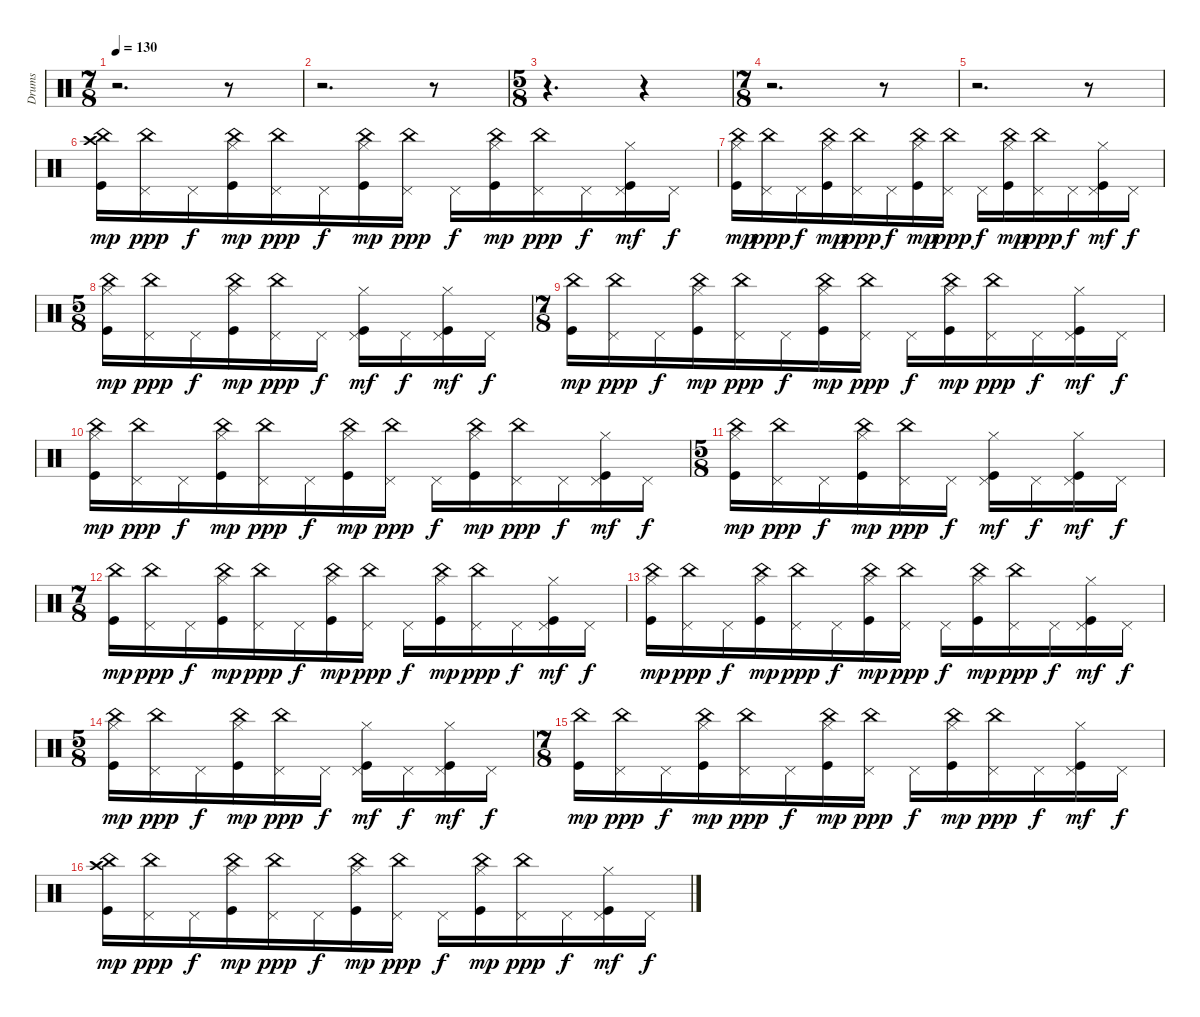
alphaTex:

\track ("Drums" "Drums") {instrument percussion}
\staff {score}
\articulation defaults
\ts (7 8)
\tempo 130
\clef neutral
\ks c
r.2{d dy f} r.8 |
r.2{d} r.8 |
\ts (5 8)
r.4{d} r.4 |
\ts (7 8)
r.2{d} r.8 |
r.2{d} r.8 |
("Crash high (hit)" "China (hit)" "Kick (hit)").16{dy mp} ("China (hit)" "Pedal Hi-Hat (hit)").16{dy ppp} "Pedal Hi-Hat (hit)".16{dy f} ("Hi-Hat (closed)" "China (hit)" "Kick (hit)").16{dy mp} ("China (hit)" "Pedal Hi-Hat (hit)").16{dy ppp} "Pedal Hi-Hat (hit)".16{dy f} ("Hi-Hat (closed)" "China (hit)" "Kick (hit)").16{dy mp} ("China (hit)" "Pedal Hi-Hat (hit)").16{dy ppp} "Pedal Hi-Hat (hit)".16{dy f} ("Hi-Hat (closed)" "China (hit)" "Kick (hit)").16{dy mp} ("China (hit)" "Pedal Hi-Hat (hit)").16{dy ppp} "Pedal Hi-Hat (hit)".16{dy f} ("Hi-Hat (closed)" "Pedal Hi-Hat (hit)" "Kick (hit)").16{dy mf} "Pedal Hi-Hat (hit)".16{dy f} |
("Hi-Hat (closed)" "China (hit)" "Kick (hit)").16{dy mp} ("China (hit)" "Pedal Hi-Hat (hit)").16{dy ppp} "Pedal Hi-Hat (hit)".16{dy f} ("Hi-Hat (closed)" "China (hit)" "Kick (hit)").16{dy mp} ("China (hit)" "Pedal Hi-Hat (hit)").16{dy ppp} "Pedal Hi-Hat (hit)".16{dy f} ("Hi-Hat (closed)" "China (hit)" "Kick (hit)").16{dy mp} ("China (hit)" "Pedal Hi-Hat (hit)").16{dy ppp} "Pedal Hi-Hat (hit)".16{dy f} ("Hi-Hat (closed)" "China (hit)" "Kick (hit)").16{dy mp} ("China (hit)" "Pedal Hi-Hat (hit)").16{dy ppp} "Pedal Hi-Hat (hit)".16{dy f} ("Hi-Hat (closed)" "Pedal Hi-Hat (hit)" "Kick (hit)").16{dy mf} "Pedal Hi-Hat (hit)".16{dy f} |
\ts (5 8)
("Hi-Hat (closed)" "China (hit)" "Kick (hit)").16{dy mp} ("China (hit)" "Pedal Hi-Hat (hit)").16{dy ppp} "Pedal Hi-Hat (hit)".16{dy f} ("Hi-Hat (closed)" "China (hit)" "Kick (hit)").16{dy mp} ("China (hit)" "Pedal Hi-Hat (hit)").16{dy ppp} "Pedal Hi-Hat (hit)".16{dy f} ("Hi-Hat (closed)" "Pedal Hi-Hat (hit)" "Kick (hit)").16{dy mf} "Pedal Hi-Hat (hit)".16{dy f} ("Hi-Hat (closed)" "Pedal Hi-Hat (hit)" "Kick (hit)").16{dy mf} "Pedal Hi-Hat (hit)".16{dy f} |
\ts (7 8)
("China (hit)" "Kick (hit)").16{dy mp} ("China (hit)" "Pedal Hi-Hat (hit)").16{dy ppp} "Pedal Hi-Hat (hit)".16{dy f} ("Hi-Hat (closed)" "China (hit)" "Kick (hit)").16{dy mp} ("China (hit)" "Pedal Hi-Hat (hit)").16{dy ppp} "Pedal Hi-Hat (hit)".16{dy f} ("Hi-Hat (closed)" "China (hit)" "Kick (hit)").16{dy mp} ("China (hit)" "Pedal Hi-Hat (hit)").16{dy ppp} "Pedal Hi-Hat (hit)".16{dy f} ("Hi-Hat (closed)" "China (hit)" "Kick (hit)").16{dy mp} ("China (hit)" "Pedal Hi-Hat (hit)").16{dy ppp} "Pedal Hi-Hat (hit)".16{dy f} ("Hi-Hat (closed)" "Pedal Hi-Hat (hit)" "Kick (hit)").16{dy mf} "Pedal Hi-Hat (hit)".16{dy f} |
("Hi-Hat (closed)" "China (hit)" "Kick (hit)").16{dy mp} ("China (hit)" "Pedal Hi-Hat (hit)").16{dy ppp} "Pedal Hi-Hat (hit)".16{dy f} ("Hi-Hat (closed)" "China (hit)" "Kick (hit)").16{dy mp} ("China (hit)" "Pedal Hi-Hat (hit)").16{dy ppp} "Pedal Hi-Hat (hit)".16{dy f} ("Hi-Hat (closed)" "China (hit)" "Kick (hit)").16{dy mp} ("China (hit)" "Pedal Hi-Hat (hit)").16{dy ppp} "Pedal Hi-Hat (hit)".16{dy f} ("Hi-Hat (closed)" "China (hit)" "Kick (hit)").16{dy mp} ("China (hit)" "Pedal Hi-Hat (hit)").16{dy ppp} "Pedal Hi-Hat (hit)".16{dy f} ("Hi-Hat (closed)" "Pedal Hi-Hat (hit)" "Kick (hit)").16{dy mf} "Pedal Hi-Hat (hit)".16{dy f} |
\ts (5 8)
("Hi-Hat (closed)" "China (hit)" "Kick (hit)").16{dy mp} ("China (hit)" "Pedal Hi-Hat (hit)").16{dy ppp} "Pedal Hi-Hat (hit)".16{dy f} ("Hi-Hat (closed)" "China (hit)" "Kick (hit)").16{dy mp} ("China (hit)" "Pedal Hi-Hat (hit)").16{dy ppp} "Pedal Hi-Hat (hit)".16{dy f} ("Hi-Hat (closed)" "Pedal Hi-Hat (hit)" "Kick (hit)").16{dy mf} "Pedal Hi-Hat (hit)".16{dy f} ("Hi-Hat (closed)" "Pedal Hi-Hat (hit)" "Kick (hit)").16{dy mf} "Pedal Hi-Hat (hit)".16{dy f} |
\ts (7 8)
("China (hit)" "Kick (hit)").16{dy mp} ("China (hit)" "Pedal Hi-Hat (hit)").16{dy ppp} "Pedal Hi-Hat (hit)".16{dy f} ("Hi-Hat (closed)" "China (hit)" "Kick (hit)").16{dy mp} ("China (hit)" "Pedal Hi-Hat (hit)").16{dy ppp} "Pedal Hi-Hat (hit)".16{dy f} ("Hi-Hat (closed)" "China (hit)" "Kick (hit)").16{dy mp} ("China (hit)" "Pedal Hi-Hat (hit)").16{dy ppp} "Pedal Hi-Hat (hit)".16{dy f} ("Hi-Hat (closed)" "China (hit)" "Kick (hit)").16{dy mp} ("China (hit)" "Pedal Hi-Hat (hit)").16{dy ppp} "Pedal Hi-Hat (hit)".16{dy f} ("Hi-Hat (closed)" "Pedal Hi-Hat (hit)" "Kick (hit)").16{dy mf} "Pedal Hi-Hat (hit)".16{dy f} |
("Hi-Hat (closed)" "China (hit)" "Kick (hit)").16{dy mp} ("China (hit)" "Pedal Hi-Hat (hit)").16{dy ppp} "Pedal Hi-Hat (hit)".16{dy f} ("Hi-Hat (closed)" "China (hit)" "Kick (hit)").16{dy mp} ("China (hit)" "Pedal Hi-Hat (hit)").16{dy ppp} "Pedal Hi-Hat (hit)".16{dy f} ("Hi-Hat (closed)" "China (hit)" "Kick (hit)").16{dy mp} ("China (hit)" "Pedal Hi-Hat (hit)").16{dy ppp} "Pedal Hi-Hat (hit)".16{dy f} ("Hi-Hat (closed)" "China (hit)" "Kick (hit)").16{dy mp} ("China (hit)" "Pedal Hi-Hat (hit)").16{dy ppp} "Pedal Hi-Hat (hit)".16{dy f} ("Hi-Hat (closed)" "Pedal Hi-Hat (hit)" "Kick (hit)").16{dy mf} "Pedal Hi-Hat (hit)".16{dy f} |
\ts (5 8)
("Hi-Hat (closed)" "China (hit)" "Kick (hit)").16{dy mp} ("China (hit)" "Pedal Hi-Hat (hit)").16{dy ppp} "Pedal Hi-Hat (hit)".16{dy f} ("Hi-Hat (closed)" "China (hit)" "Kick (hit)").16{dy mp} ("China (hit)" "Pedal Hi-Hat (hit)").16{dy ppp} "Pedal Hi-Hat (hit)".16{dy f} ("Hi-Hat (closed)" "Pedal Hi-Hat (hit)" "Kick (hit)").16{dy mf} "Pedal Hi-Hat (hit)".16{dy f} ("Hi-Hat (closed)" "Pedal Hi-Hat (hit)" "Kick (hit)").16{dy mf} "Pedal Hi-Hat (hit)".16{dy f} |
\ts (7 8)
("China (hit)" "Kick (hit)").16{dy mp} ("China (hit)" "Pedal Hi-Hat (hit)").16{dy ppp} "Pedal Hi-Hat (hit)".16{dy f} ("Hi-Hat (closed)" "China (hit)" "Kick (hit)").16{dy mp} ("China (hit)" "Pedal Hi-Hat (hit)").16{dy ppp} "Pedal Hi-Hat (hit)".16{dy f} ("Hi-Hat (closed)" "China (hit)" "Kick (hit)").16{dy mp} ("China (hit)" "Pedal Hi-Hat (hit)").16{dy ppp} "Pedal Hi-Hat (hit)".16{dy f} ("Hi-Hat (closed)" "China (hit)" "Kick (hit)").16{dy mp} ("China (hit)" "Pedal Hi-Hat (hit)").16{dy ppp} "Pedal Hi-Hat (hit)".16{dy f} ("Hi-Hat (closed)" "Pedal Hi-Hat (hit)" "Kick (hit)").16{dy mf} "Pedal Hi-Hat (hit)".16{dy f} |
("Crash high (hit)" "China (hit)" "Kick (hit)").16{dy mp} ("China (hit)" "Pedal Hi-Hat (hit)").16{dy ppp} "Pedal Hi-Hat (hit)".16{dy f} ("Hi-Hat (closed)" "China (hit)" "Kick (hit)").16{dy mp} ("China (hit)" "Pedal Hi-Hat (hit)").16{dy ppp} "Pedal Hi-Hat (hit)".16{dy f} ("Hi-Hat (closed)" "China (hit)" "Kick (hit)").16{dy mp} ("China (hit)" "Pedal Hi-Hat (hit)").16{dy ppp} "Pedal Hi-Hat (hit)".16{dy f} ("Hi-Hat (closed)" "China (hit)" "Kick (hit)").16{dy mp} ("China (hit)" "Pedal Hi-Hat (hit)").16{dy ppp} "Pedal Hi-Hat (hit)".16{dy f} ("Hi-Hat (closed)" "Pedal Hi-Hat (hit)" "Kick (hit)").16{dy mf} "Pedal Hi-Hat (hit)".16{dy f}
